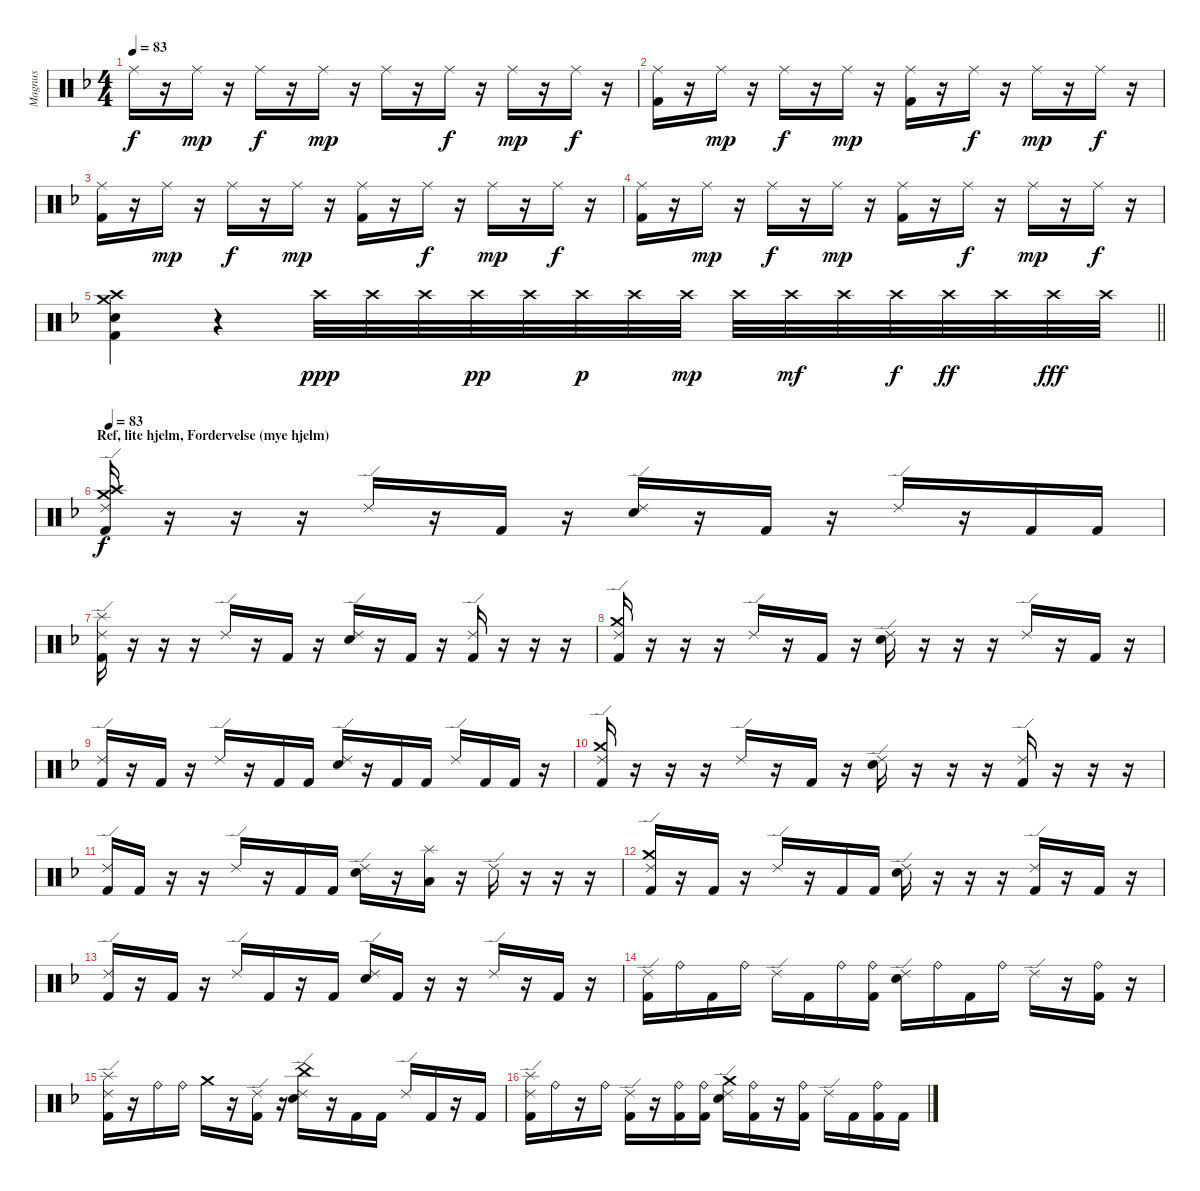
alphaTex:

\track ("Magnus" "Magnus") {instrument percussion}
\staff {score}
\articulation defaults
\ts (4 4)
\tempo 83
\clef neutral
\ks dminor "Ride (middle)".16{dy f}
r.16 "Ride (middle)".16{dy mp} r.16 "Ride (middle)".16{dy f} r.16 "Ride (middle)".16{dy mp} r.16 "Ride (middle)".16 r.16 "Ride (middle)".16{dy f} r.16 "Ride (middle)".16{dy mp} r.16 "Ride (middle)".16{dy f} r.16 |
("Ride (middle)" "Kick (hit) 2").16 r.16 "Ride (middle)".16{dy mp} r.16 "Ride (middle)".16{dy f} r.16 "Ride (middle)".16{dy mp} r.16 ("Ride (middle)" "Kick (hit) 2").16 r.16 "Ride (middle)".16{dy f} r.16 "Ride (middle)".16{dy mp} r.16 "Ride (middle)".16{dy f} r.16 |
("Ride (middle)" "Kick (hit) 2").16 r.16 "Ride (middle)".16{dy mp} r.16 "Ride (middle)".16{dy f} r.16 "Ride (middle)".16{dy mp} r.16 ("Ride (middle)" "Kick (hit) 2").16 r.16 "Ride (middle)".16{dy f} r.16 "Ride (middle)".16{dy mp} r.16 "Ride (middle)".16{dy f} r.16 |
("Ride (middle)" "Kick (hit) 2").16 r.16 "Ride (middle)".16{dy mp} r.16 "Ride (middle)".16{dy f} r.16 "Ride (middle)".16{dy mp} r.16 ("Ride (middle)" "Kick (hit) 2").16 r.16 "Ride (middle)".16{dy f} r.16 "Ride (middle)".16{dy mp} r.16 "Ride (middle)".16{dy f} r.16 |
\barLineRight lightlight
("Snare (hit) 2" "Crash high (hit)" "Crash medium (hit)" "Kick (hit) 2").4 r.4 "Crash high (hit)".32{dy ppp volume 14} "Crash high (hit)".32 "Crash high (hit)".32 "Crash high (hit)".32{dy pp} "Crash high (hit)".32 "Crash high (hit)".32{dy p} "Crash high (hit)".32 "Crash high (hit)".32{dy mp} "Crash high (hit)".32 "Crash high (hit)".32{dy mf} "Crash high (hit)".32 "Crash high (hit)".32{dy f} "Crash high (hit)".32{dy ff} "Crash high (hit)".32 "Crash high (hit)".32{dy fff} "Crash high (hit)".32 |
\section ("" "Ref, lite hjelm, Fordervelse (mye hjelm)")
\tempo 83
("Crash medium (hit)" "Crash high (hit)" "Ride (edge) 2" "Kick (hit) 2").16{dy f} r.16 r.16 r.16 "Ride (edge) 2".16 r.16 "Kick (hit) 2".16 r.16 ("Ride (edge) 2" "Snare (hit) 2").16 r.16 "Kick (hit) 2".16 r.16 "Ride (edge) 2".16 r.16 "Kick (hit) 2".16 "Kick (hit) 2".16 |
("Splash (hit)" "Ride (edge) 2" "Kick (hit) 2").16 r.16 r.16 r.16 "Ride (edge) 2".16 r.16 "Kick (hit) 2".16 r.16 ("Ride (edge) 2" "Snare (hit) 2").16 r.16 "Kick (hit) 2".16 r.16 ("Ride (edge) 2" "Kick (hit) 2").16 r.16 r.16 r.16 |
("Crash medium (hit)" "Ride (edge) 2" "Kick (hit) 2").16 r.16 r.16 r.16 "Ride (edge) 2".16 r.16 "Kick (hit) 2".16 r.16 ("Ride (edge) 2" "Snare (hit) 2").16 r.16 r.16 r.16 "Ride (edge) 2".16 r.16 "Kick (hit) 2".16 r.16 |
("Ride (edge) 2" "Kick (hit) 2").16 r.16 "Kick (hit) 2".16 r.16 "Ride (edge) 2".16 r.16 "Kick (hit) 2".16 "Kick (hit) 2".16 ("Ride (edge) 2" "Snare (hit) 2").16 r.16 "Kick (hit) 2".16 "Kick (hit) 2".16 "Ride (edge) 2".16 "Kick (hit) 2".16 "Kick (hit) 2".16 r.16 |
("Crash medium (hit)" "Ride (edge) 2" "Kick (hit) 2").16 r.16 r.16 r.16 "Ride (edge) 2".16 r.16 "Kick (hit) 2".16 r.16 ("Ride (edge) 2" "Snare (hit) 2").16 r.16 r.16 r.16 ("Ride (edge) 2" "Kick (hit) 2").16 r.16 r.16 r.16 |
("Ride (edge) 2" "Kick (hit) 2").16 "Kick (hit) 2".16 r.16 r.16 "Ride (edge) 2".16 r.16 "Kick (hit) 2".16 "Kick (hit) 2".16 ("Ride (edge) 2" "Snare (hit) 2").16 r.16 ("Splash (hit)" "Low Tom (hit)").16 r.16 "Ride (edge) 2".16 r.16 r.16 r.16 |
("Crash medium (hit)" "Ride (edge) 2" "Kick (hit) 2").16 r.16 "Kick (hit) 2".16 r.16 "Ride (edge) 2".16 r.16 "Kick (hit) 2".16 "Kick (hit) 2".16 ("Ride (edge) 2" "Snare (hit) 2").16 r.16 r.16 r.16 ("Ride (edge) 2" "Kick (hit) 2").16 r.16 "Kick (hit) 2".16 r.16 |
("Ride (edge) 2" "Kick (hit) 2").16 r.16 "Kick (hit) 2".16 r.16 "Ride (edge) 2".16 "Kick (hit) 2".16 r.16 "Kick (hit) 2".16 ("Ride (edge) 2" "Snare (hit) 2").16 "Kick (hit) 2".16 r.16 r.16 "Ride (edge) 2".16 r.16 "Kick (hit) 2".16 r.16 |
("Ride (edge) 2" "Kick (hit) 2").16 "Ride (bell)".16 "Kick (hit) 2".16 "Ride (bell)".16 "Ride (edge) 2".16 "Kick (hit) 2".16 "Ride (bell)".16 ("Ride (bell)" "Kick (hit) 2").16 ("Ride (edge) 2" "Snare (hit) 2").16 "Ride (bell)".16 "Kick (hit) 2".16 "Ride (bell)".16 "Ride (edge) 2".16 r.16 ("Ride (bell)" "Kick (hit) 2").16 r.16 |
("Splash (hit)" "Ride (edge) 2" "Kick (hit) 2").16 r.16 "Ride (bell)".16 "Ride (bell)".16 "Crash medium (hit)".16 r.16 ("Ride (edge) 2" "Kick (hit) 2").16 r.16 ("China (hit)" "Ride (edge) 2" "Snare (hit) 2").16 r.16 "Kick (hit) 2".16 "Kick (hit) 2".16 "Ride (edge) 2".16 "Kick (hit) 2".16 r.16 "Kick (hit) 2".16 |
("Splash (hit)" "Ride (edge) 2" "Kick (hit) 2").16 "Ride (bell)".16 r.16 "Ride (bell)".16 ("Ride (edge) 2" "Kick (hit) 2").16 r.16 ("Ride (bell)" "Kick (hit) 2").16 ("Ride (bell)" "Kick (hit) 2").16 ("Crash medium (hit)" "Ride (edge) 2" "Snare (hit) 2").16 ("Ride (bell)" "Kick (hit) 2").16 r.16 ("Ride (bell)" "Kick (hit) 2").16 "Ride (edge) 2".16 "Kick (hit) 2".16 ("Ride (bell)" "Kick (hit) 2").16 "Kick (hit) 2".16
